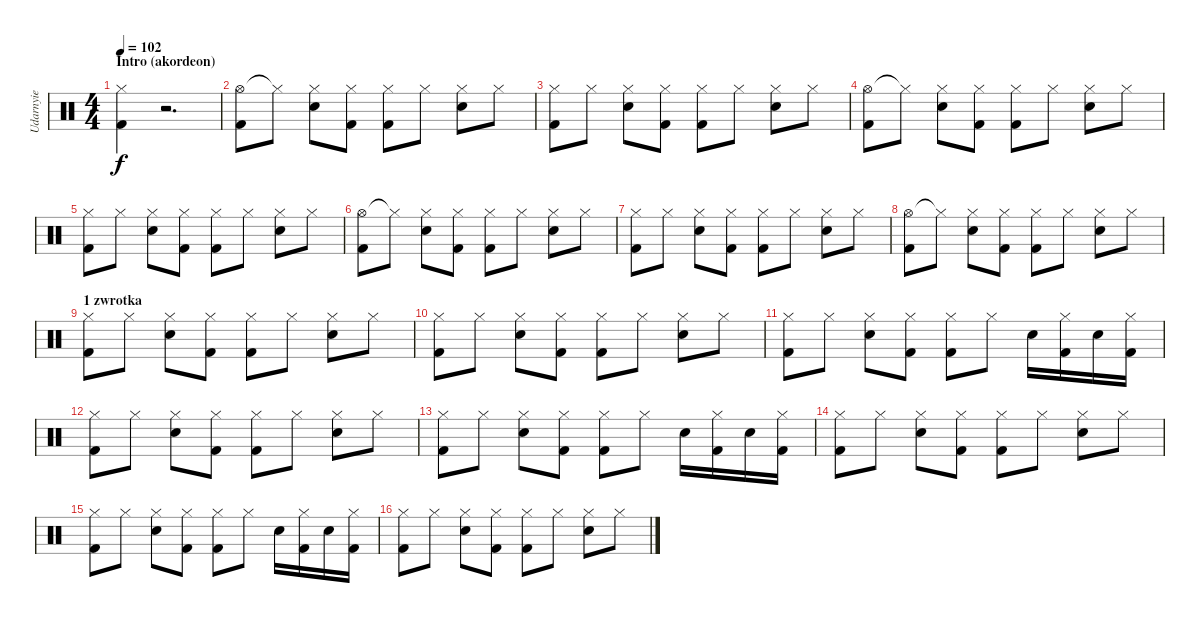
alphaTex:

\track ("Udarnyie" "Udarnyie") {instrument percussion}
\staff {score}
\articulation defaults
\ts (4 4)
\section ("" "Intro (akordeon)")
\tempo 102
\clef neutral
\ks c
("Hi-Hat (closed)" "Kick (hit) 2").4{dy f} r.2{d} |
("Hi-Hat (open)" "Kick (hit) 2").8 "Hi-Hat (closed)"{t}.8 ("Hi-Hat (closed)" "Snare (hit) 2").8 ("Hi-Hat (closed)" "Kick (hit) 2").8 ("Hi-Hat (closed)" "Kick (hit) 2").8 "Hi-Hat (closed)".8 ("Hi-Hat (closed)" "Snare (hit) 2").8 "Hi-Hat (closed)".8 |
("Hi-Hat (closed)" "Kick (hit) 2").8 "Hi-Hat (closed)".8 ("Hi-Hat (closed)" "Snare (hit) 2").8 ("Hi-Hat (closed)" "Kick (hit) 2").8 ("Hi-Hat (closed)" "Kick (hit) 2").8 "Hi-Hat (closed)".8 ("Hi-Hat (closed)" "Snare (hit) 2").8 "Hi-Hat (closed)".8 |
("Hi-Hat (open)" "Kick (hit) 2").8 "Hi-Hat (closed)"{t}.8 ("Hi-Hat (closed)" "Snare (hit) 2").8 ("Hi-Hat (closed)" "Kick (hit) 2").8 ("Hi-Hat (closed)" "Kick (hit) 2").8 "Hi-Hat (closed)".8 ("Hi-Hat (closed)" "Snare (hit) 2").8 "Hi-Hat (closed)".8 |
("Hi-Hat (closed)" "Kick (hit) 2").8 "Hi-Hat (closed)".8 ("Hi-Hat (closed)" "Snare (hit) 2").8 ("Hi-Hat (closed)" "Kick (hit) 2").8 ("Hi-Hat (closed)" "Kick (hit) 2").8 "Hi-Hat (closed)".8 ("Hi-Hat (closed)" "Snare (hit) 2").8 "Hi-Hat (closed)".8 |
("Hi-Hat (open)" "Kick (hit) 2").8 "Hi-Hat (closed)"{t}.8 ("Hi-Hat (closed)" "Snare (hit) 2").8 ("Hi-Hat (closed)" "Kick (hit) 2").8 ("Hi-Hat (closed)" "Kick (hit) 2").8 "Hi-Hat (closed)".8 ("Hi-Hat (closed)" "Snare (hit) 2").8 "Hi-Hat (closed)".8 |
("Hi-Hat (closed)" "Kick (hit) 2").8 "Hi-Hat (closed)".8 ("Hi-Hat (closed)" "Snare (hit) 2").8 ("Hi-Hat (closed)" "Kick (hit) 2").8 ("Hi-Hat (closed)" "Kick (hit) 2").8 "Hi-Hat (closed)".8 ("Hi-Hat (closed)" "Snare (hit) 2").8 "Hi-Hat (closed)".8 |
("Hi-Hat (open)" "Kick (hit) 2").8 "Hi-Hat (closed)"{t}.8 ("Hi-Hat (closed)" "Snare (hit) 2").8 ("Hi-Hat (closed)" "Kick (hit) 2").8 ("Hi-Hat (closed)" "Kick (hit) 2").8 "Hi-Hat (closed)".8 ("Hi-Hat (closed)" "Snare (hit) 2").8 "Hi-Hat (closed)".8 |
\section ("" "1 zwrotka")
("Hi-Hat (closed)" "Kick (hit) 2").8 "Hi-Hat (closed)".8 ("Hi-Hat (closed)" "Snare (hit) 2").8 ("Hi-Hat (closed)" "Kick (hit) 2").8 ("Hi-Hat (closed)" "Kick (hit) 2").8 "Hi-Hat (closed)".8 ("Hi-Hat (closed)" "Snare (hit) 2").8 "Hi-Hat (closed)".8 |
("Hi-Hat (closed)" "Kick (hit) 2").8 "Hi-Hat (closed)".8 ("Hi-Hat (closed)" "Snare (hit) 2").8 ("Hi-Hat (closed)" "Kick (hit) 2").8 ("Hi-Hat (closed)" "Kick (hit) 2").8 "Hi-Hat (closed)".8 ("Hi-Hat (closed)" "Snare (hit) 2").8 "Hi-Hat (closed)".8 |
("Hi-Hat (closed)" "Kick (hit) 2").8 "Hi-Hat (closed)".8 ("Hi-Hat (closed)" "Snare (hit) 2").8 ("Hi-Hat (closed)" "Kick (hit) 2").8 ("Hi-Hat (closed)" "Kick (hit) 2").8 "Hi-Hat (closed)".8 "Snare (hit) 2".16 ("Hi-Hat (closed)" "Kick (hit) 2").16 "Snare (hit) 2".16 ("Hi-Hat (closed)" "Kick (hit) 2").16 |
("Hi-Hat (closed)" "Kick (hit) 2").8 "Hi-Hat (closed)".8 ("Hi-Hat (closed)" "Snare (hit) 2").8 ("Hi-Hat (closed)" "Kick (hit) 2").8 ("Hi-Hat (closed)" "Kick (hit) 2").8 "Hi-Hat (closed)".8 ("Hi-Hat (closed)" "Snare (hit) 2").8 "Hi-Hat (closed)".8 |
("Hi-Hat (closed)" "Kick (hit) 2").8 "Hi-Hat (closed)".8 ("Hi-Hat (closed)" "Snare (hit) 2").8 ("Hi-Hat (closed)" "Kick (hit) 2").8 ("Hi-Hat (closed)" "Kick (hit) 2").8 "Hi-Hat (closed)".8 "Snare (hit) 2".16 ("Hi-Hat (closed)" "Kick (hit) 2").16 "Snare (hit) 2".16 ("Hi-Hat (closed)" "Kick (hit) 2").16 |
("Hi-Hat (closed)" "Kick (hit) 2").8 "Hi-Hat (closed)".8 ("Hi-Hat (closed)" "Snare (hit) 2").8 ("Hi-Hat (closed)" "Kick (hit) 2").8 ("Hi-Hat (closed)" "Kick (hit) 2").8 "Hi-Hat (closed)".8 ("Hi-Hat (closed)" "Snare (hit) 2").8 "Hi-Hat (closed)".8 |
("Hi-Hat (closed)" "Kick (hit) 2").8 "Hi-Hat (closed)".8 ("Hi-Hat (closed)" "Snare (hit) 2").8 ("Hi-Hat (closed)" "Kick (hit) 2").8 ("Hi-Hat (closed)" "Kick (hit) 2").8 "Hi-Hat (closed)".8 "Snare (hit) 2".16 ("Hi-Hat (closed)" "Kick (hit) 2").16 "Snare (hit) 2".16 ("Hi-Hat (closed)" "Kick (hit) 2").16 |
("Hi-Hat (closed)" "Kick (hit) 2").8 "Hi-Hat (closed)".8 ("Hi-Hat (closed)" "Snare (hit) 2").8 ("Hi-Hat (closed)" "Kick (hit) 2").8 ("Hi-Hat (closed)" "Kick (hit) 2").8 "Hi-Hat (closed)".8 ("Hi-Hat (closed)" "Snare (hit) 2").8 "Hi-Hat (closed)".8
